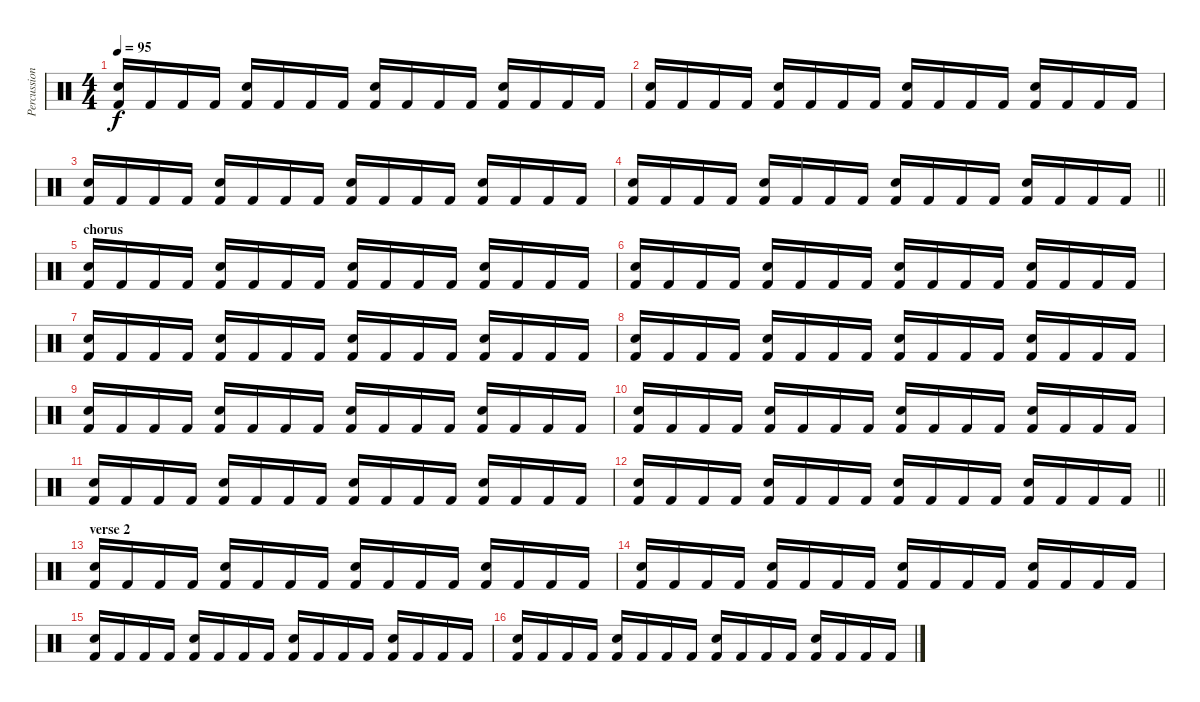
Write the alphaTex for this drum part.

\track ("Percussioni" "Percussion") {instrument percussion}
\staff {score}
\articulation defaults
\ts (4 4)
\tempo 95
\clef neutral
\ks c
("Snare (hit) 2" "Kick (hit) 2").16{dy f} "Kick (hit) 2".16 "Kick (hit) 2".16 "Kick (hit) 2".16 ("Snare (hit) 2" "Kick (hit) 2").16 "Kick (hit) 2".16 "Kick (hit) 2".16 "Kick (hit) 2".16 ("Snare (hit) 2" "Kick (hit) 2").16 "Kick (hit) 2".16 "Kick (hit) 2".16 "Kick (hit) 2".16 ("Snare (hit) 2" "Kick (hit) 2").16 "Kick (hit) 2".16 "Kick (hit) 2".16 "Kick (hit) 2".16 |
("Snare (hit) 2" "Kick (hit) 2").16 "Kick (hit) 2".16 "Kick (hit) 2".16 "Kick (hit) 2".16 ("Snare (hit) 2" "Kick (hit) 2").16 "Kick (hit) 2".16 "Kick (hit) 2".16 "Kick (hit) 2".16 ("Snare (hit) 2" "Kick (hit) 2").16 "Kick (hit) 2".16 "Kick (hit) 2".16 "Kick (hit) 2".16 ("Snare (hit) 2" "Kick (hit) 2").16 "Kick (hit) 2".16 "Kick (hit) 2".16 "Kick (hit) 2".16 |
("Snare (hit) 2" "Kick (hit) 2").16 "Kick (hit) 2".16 "Kick (hit) 2".16 "Kick (hit) 2".16 ("Snare (hit) 2" "Kick (hit) 2").16 "Kick (hit) 2".16 "Kick (hit) 2".16 "Kick (hit) 2".16 ("Snare (hit) 2" "Kick (hit) 2").16 "Kick (hit) 2".16 "Kick (hit) 2".16 "Kick (hit) 2".16 ("Snare (hit) 2" "Kick (hit) 2").16 "Kick (hit) 2".16 "Kick (hit) 2".16 "Kick (hit) 2".16 |
\barLineRight lightlight
("Snare (hit) 2" "Kick (hit) 2").16 "Kick (hit) 2".16 "Kick (hit) 2".16 "Kick (hit) 2".16 ("Snare (hit) 2" "Kick (hit) 2").16 "Kick (hit) 2".16 "Kick (hit) 2".16 "Kick (hit) 2".16 ("Snare (hit) 2" "Kick (hit) 2").16 "Kick (hit) 2".16 "Kick (hit) 2".16 "Kick (hit) 2".16 ("Snare (hit) 2" "Kick (hit) 2").16 "Kick (hit) 2".16 "Kick (hit) 2".16 "Kick (hit) 2".16 |
\section ("" "chorus")
("Snare (hit) 2" "Kick (hit) 2").16 "Kick (hit) 2".16 "Kick (hit) 2".16 "Kick (hit) 2".16 ("Snare (hit) 2" "Kick (hit) 2").16 "Kick (hit) 2".16 "Kick (hit) 2".16 "Kick (hit) 2".16 ("Snare (hit) 2" "Kick (hit) 2").16 "Kick (hit) 2".16 "Kick (hit) 2".16 "Kick (hit) 2".16 ("Snare (hit) 2" "Kick (hit) 2").16 "Kick (hit) 2".16 "Kick (hit) 2".16 "Kick (hit) 2".16 |
("Snare (hit) 2" "Kick (hit) 2").16 "Kick (hit) 2".16 "Kick (hit) 2".16 "Kick (hit) 2".16 ("Snare (hit) 2" "Kick (hit) 2").16 "Kick (hit) 2".16 "Kick (hit) 2".16 "Kick (hit) 2".16 ("Snare (hit) 2" "Kick (hit) 2").16 "Kick (hit) 2".16 "Kick (hit) 2".16 "Kick (hit) 2".16 ("Snare (hit) 2" "Kick (hit) 2").16 "Kick (hit) 2".16 "Kick (hit) 2".16 "Kick (hit) 2".16 |
("Snare (hit) 2" "Kick (hit) 2").16 "Kick (hit) 2".16 "Kick (hit) 2".16 "Kick (hit) 2".16 ("Snare (hit) 2" "Kick (hit) 2").16 "Kick (hit) 2".16 "Kick (hit) 2".16 "Kick (hit) 2".16 ("Snare (hit) 2" "Kick (hit) 2").16 "Kick (hit) 2".16 "Kick (hit) 2".16 "Kick (hit) 2".16 ("Snare (hit) 2" "Kick (hit) 2").16 "Kick (hit) 2".16 "Kick (hit) 2".16 "Kick (hit) 2".16 |
("Snare (hit) 2" "Kick (hit) 2").16 "Kick (hit) 2".16 "Kick (hit) 2".16 "Kick (hit) 2".16 ("Snare (hit) 2" "Kick (hit) 2").16 "Kick (hit) 2".16 "Kick (hit) 2".16 "Kick (hit) 2".16 ("Snare (hit) 2" "Kick (hit) 2").16 "Kick (hit) 2".16 "Kick (hit) 2".16 "Kick (hit) 2".16 ("Snare (hit) 2" "Kick (hit) 2").16 "Kick (hit) 2".16 "Kick (hit) 2".16 "Kick (hit) 2".16 |
("Snare (hit) 2" "Kick (hit) 2").16 "Kick (hit) 2".16 "Kick (hit) 2".16 "Kick (hit) 2".16 ("Snare (hit) 2" "Kick (hit) 2").16 "Kick (hit) 2".16 "Kick (hit) 2".16 "Kick (hit) 2".16 ("Snare (hit) 2" "Kick (hit) 2").16 "Kick (hit) 2".16 "Kick (hit) 2".16 "Kick (hit) 2".16 ("Snare (hit) 2" "Kick (hit) 2").16 "Kick (hit) 2".16 "Kick (hit) 2".16 "Kick (hit) 2".16 |
("Snare (hit) 2" "Kick (hit) 2").16 "Kick (hit) 2".16 "Kick (hit) 2".16 "Kick (hit) 2".16 ("Snare (hit) 2" "Kick (hit) 2").16 "Kick (hit) 2".16 "Kick (hit) 2".16 "Kick (hit) 2".16 ("Snare (hit) 2" "Kick (hit) 2").16 "Kick (hit) 2".16 "Kick (hit) 2".16 "Kick (hit) 2".16 ("Snare (hit) 2" "Kick (hit) 2").16 "Kick (hit) 2".16 "Kick (hit) 2".16 "Kick (hit) 2".16 |
("Snare (hit) 2" "Kick (hit) 2").16 "Kick (hit) 2".16 "Kick (hit) 2".16 "Kick (hit) 2".16 ("Snare (hit) 2" "Kick (hit) 2").16 "Kick (hit) 2".16 "Kick (hit) 2".16 "Kick (hit) 2".16 ("Snare (hit) 2" "Kick (hit) 2").16 "Kick (hit) 2".16 "Kick (hit) 2".16 "Kick (hit) 2".16 ("Snare (hit) 2" "Kick (hit) 2").16 "Kick (hit) 2".16 "Kick (hit) 2".16 "Kick (hit) 2".16 |
\barLineRight lightlight
("Snare (hit) 2" "Kick (hit) 2").16 "Kick (hit) 2".16 "Kick (hit) 2".16 "Kick (hit) 2".16 ("Snare (hit) 2" "Kick (hit) 2").16 "Kick (hit) 2".16 "Kick (hit) 2".16 "Kick (hit) 2".16 ("Snare (hit) 2" "Kick (hit) 2").16 "Kick (hit) 2".16 "Kick (hit) 2".16 "Kick (hit) 2".16 ("Snare (hit) 2" "Kick (hit) 2").16 "Kick (hit) 2".16 "Kick (hit) 2".16 "Kick (hit) 2".16 |
\section ("" "verse 2")
("Snare (hit) 2" "Kick (hit) 2").16 "Kick (hit) 2".16 "Kick (hit) 2".16 "Kick (hit) 2".16 ("Snare (hit) 2" "Kick (hit) 2").16 "Kick (hit) 2".16 "Kick (hit) 2".16 "Kick (hit) 2".16 ("Snare (hit) 2" "Kick (hit) 2").16 "Kick (hit) 2".16 "Kick (hit) 2".16 "Kick (hit) 2".16 ("Snare (hit) 2" "Kick (hit) 2").16 "Kick (hit) 2".16 "Kick (hit) 2".16 "Kick (hit) 2".16 |
("Snare (hit) 2" "Kick (hit) 2").16 "Kick (hit) 2".16 "Kick (hit) 2".16 "Kick (hit) 2".16 ("Snare (hit) 2" "Kick (hit) 2").16 "Kick (hit) 2".16 "Kick (hit) 2".16 "Kick (hit) 2".16 ("Snare (hit) 2" "Kick (hit) 2").16 "Kick (hit) 2".16 "Kick (hit) 2".16 "Kick (hit) 2".16 ("Snare (hit) 2" "Kick (hit) 2").16 "Kick (hit) 2".16 "Kick (hit) 2".16 "Kick (hit) 2".16 |
("Snare (hit) 2" "Kick (hit) 2").16 "Kick (hit) 2".16 "Kick (hit) 2".16 "Kick (hit) 2".16 ("Snare (hit) 2" "Kick (hit) 2").16 "Kick (hit) 2".16 "Kick (hit) 2".16 "Kick (hit) 2".16 ("Snare (hit) 2" "Kick (hit) 2").16 "Kick (hit) 2".16 "Kick (hit) 2".16 "Kick (hit) 2".16 ("Snare (hit) 2" "Kick (hit) 2").16 "Kick (hit) 2".16 "Kick (hit) 2".16 "Kick (hit) 2".16 |
("Snare (hit) 2" "Kick (hit) 2").16 "Kick (hit) 2".16 "Kick (hit) 2".16 "Kick (hit) 2".16 ("Snare (hit) 2" "Kick (hit) 2").16 "Kick (hit) 2".16 "Kick (hit) 2".16 "Kick (hit) 2".16 ("Snare (hit) 2" "Kick (hit) 2").16 "Kick (hit) 2".16 "Kick (hit) 2".16 "Kick (hit) 2".16 ("Snare (hit) 2" "Kick (hit) 2").16 "Kick (hit) 2".16 "Kick (hit) 2".16 "Kick (hit) 2".16
